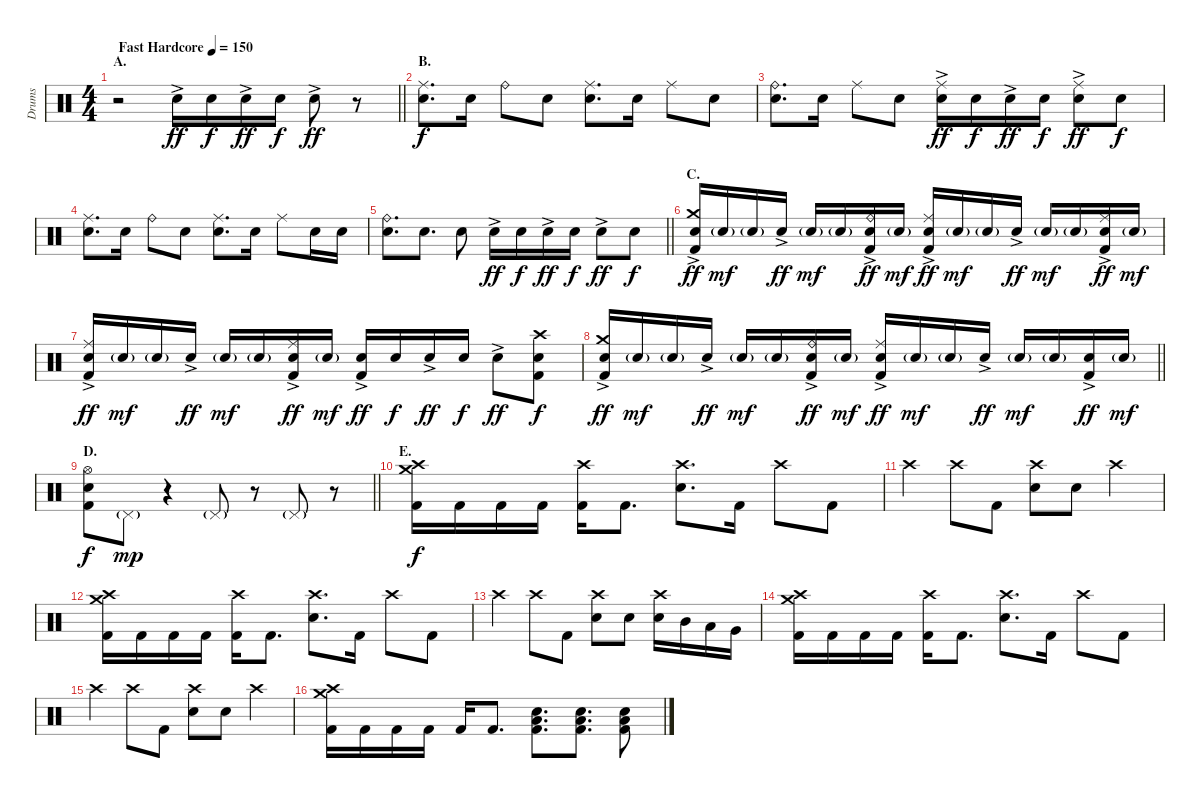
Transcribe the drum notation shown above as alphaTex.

\track ("Drums" "Drums") {instrument percussion}
\staff {score}
\articulation defaults
\ts (4 4)
\section ("" "A.")
\tempo (150 "Fast Hardcore")
\clef neutral
\barLineRight lightlight
\ks c
r.2{dy ff} "Electric Snare (hit)"{ac}.16 "Electric Snare (hit)".16{dy f} "Electric Snare (hit)"{ac}.16{dy ff} "Electric Snare (hit)".16{dy f} "Electric Snare (hit)"{ac}.8{dy ff} r.8 |
\section ("" "B.")
("Ride (middle)" "Electric Snare (hit)").8{d dy f} "Electric Snare (hit)".16 "Ride (bell)".8 "Electric Snare (hit)".8 ("Ride (middle)" "Electric Snare (hit)").8{d} "Electric Snare (hit)".16 "Ride (middle)".8 "Electric Snare (hit)".8 |
("Ride (bell)" "Electric Snare (hit)").8{d} "Electric Snare (hit)".16 "Ride (middle)".8 "Electric Snare (hit)".8 ("Ride (middle)" "Electric Snare (hit)"{ac}).16{dy ff} "Electric Snare (hit)".16{dy f} "Electric Snare (hit)"{ac}.16{dy ff} "Electric Snare (hit)".16{dy f} ("Ride (middle)" "Electric Snare (hit)"{ac}).8{dy ff} "Electric Snare (hit)".8{dy f} |
("Ride (middle)" "Electric Snare (hit)").8{d} "Electric Snare (hit)".16 "Ride (bell)".8 "Electric Snare (hit)".8 ("Ride (middle)" "Electric Snare (hit)").8{d} "Electric Snare (hit)".16 "Ride (middle)".8 "Electric Snare (hit)".16 "Electric Snare (hit)".16 |
\barLineRight lightlight
("Ride (bell)" "Electric Snare (hit)").8{d} "Electric Snare (hit)".8{d} "Electric Snare (hit)".8 "Electric Snare (hit)"{ac}.16{dy ff} "Electric Snare (hit)".16{dy f} "Electric Snare (hit)"{ac}.16{dy ff} "Electric Snare (hit)".16{dy f} "Electric Snare (hit)"{ac}.8{dy ff} "Electric Snare (hit)".8{dy f} |
\section ("" "C.")
("Crash medium (hit)" "Electric Snare (hit)"{ac} "Kick (hit) 2").16{dy ff} "Electric Snare (hit)"{g}.16{dy mf} "Electric Snare (hit)"{g}.16 "Electric Snare (hit)"{ac}.16{dy ff} "Electric Snare (hit)"{g}.16{dy mf} "Electric Snare (hit)"{g}.16 ("Ride (bell)" "Electric Snare (hit)"{ac} "Kick (hit) 2").16{dy ff} "Electric Snare (hit)"{g}.16{dy mf} ("Ride (middle)" "Electric Snare (hit)"{ac} "Kick (hit) 2").16{dy ff} "Electric Snare (hit)"{g}.16{dy mf} "Electric Snare (hit)"{g}.16 "Electric Snare (hit)"{ac}.16{dy ff} "Electric Snare (hit)"{g}.16{dy mf} "Electric Snare (hit)"{g}.16 ("Ride (middle)" "Electric Snare (hit)"{ac} "Kick (hit) 2").16{dy ff} "Electric Snare (hit)"{g}.16{dy mf} |
("Ride (middle)" "Electric Snare (hit)"{ac} "Kick (hit) 2").16{dy ff} "Electric Snare (hit)"{g}.16{dy mf} "Electric Snare (hit)"{g}.16 "Electric Snare (hit)"{ac}.16{dy ff} "Electric Snare (hit)"{g}.16{dy mf} "Electric Snare (hit)"{g}.16 ("Ride (middle)" "Electric Snare (hit)"{ac} "Kick (hit) 2").16{dy ff} "Electric Snare (hit)"{g}.16{dy mf} ("Electric Snare (hit)"{ac} "Kick (hit) 2").16{dy ff} "Electric Snare (hit)".16{dy f} "Electric Snare (hit)"{ac}.16{dy ff} "Electric Snare (hit)".16{dy f} "Electric Snare (hit)"{ac}.8{dy ff} ("Crash high (hit)" "Electric Snare (hit)" "Kick (hit) 2").8{dy f} |
\barLineRight lightlight
("Crash medium (hit)" "Electric Snare (hit)"{ac} "Kick (hit) 2").16{dy ff} "Electric Snare (hit)"{g}.16{dy mf} "Electric Snare (hit)"{g}.16 "Electric Snare (hit)"{ac}.16{dy ff} "Electric Snare (hit)"{g}.16{dy mf} "Electric Snare (hit)"{g}.16 ("Ride (bell)" "Electric Snare (hit)"{ac} "Kick (hit) 2").16{dy ff} "Electric Snare (hit)"{g}.16{dy mf} ("Ride (middle)" "Electric Snare (hit)"{ac} "Kick (hit) 2").16{dy ff} "Electric Snare (hit)"{g}.16{dy mf} "Electric Snare (hit)"{g}.16 "Electric Snare (hit)"{ac}.16{dy ff} "Electric Snare (hit)"{g}.16{dy mf} "Electric Snare (hit)"{g}.16 ("Electric Snare (hit)"{ac} "Kick (hit) 2").16{dy ff} "Electric Snare (hit)"{g}.16{dy mf} |
\section ("" "D.")
\barLineRight lightlight
("Hi-Hat (open)" "Electric Snare (hit)" "Kick (hit) 2").8{dy f} "Pedal Hi-Hat (hit)"{g}.8{dy mp} r.4 "Pedal Hi-Hat (hit)"{g}.8 r.8 "Pedal Hi-Hat (hit)"{g}.8 r.8 |
\section ("" "E.")
("Crash medium (hit)" "Crash high (hit)" "Kick (hit) 2").16{dy f} "Kick (hit) 2".16 "Kick (hit) 2".16 "Kick (hit) 2".16 ("Crash high (hit)" "Kick (hit) 2").16 "Kick (hit) 2".8{d} ("Crash high (hit)" "Electric Snare (hit)").8{d} "Kick (hit) 2".16 "Crash high (hit)".8 "Kick (hit) 2".8 |
"Crash high (hit)".4 "Crash high (hit)".8 "Kick (hit) 2".8 ("Crash high (hit)" "Electric Snare (hit)").8 "Electric Snare (hit)".8 "Crash high (hit)".4 |
("Crash medium (hit)" "Crash high (hit)" "Kick (hit) 2").16 "Kick (hit) 2".16 "Kick (hit) 2".16 "Kick (hit) 2".16 ("Crash high (hit)" "Kick (hit) 2").16 "Kick (hit) 2".8{d} ("Crash high (hit)" "Electric Snare (hit)").8{d} "Kick (hit) 2".16 "Crash high (hit)".8 "Kick (hit) 2".8 |
"Crash high (hit)".4 "Crash high (hit)".8 "Kick (hit) 2".8 ("Crash high (hit)" "Electric Snare (hit)").8 "Electric Snare (hit)".8 ("Crash high (hit)" "Electric Snare (hit)").16 "Mid Tom (hit)".16 "Low Tom (hit)".16 "Very Low Tom (hit)".16 |
("Crash medium (hit)" "Crash high (hit)" "Kick (hit) 2").16 "Kick (hit) 2".16 "Kick (hit) 2".16 "Kick (hit) 2".16 ("Crash high (hit)" "Kick (hit) 2").16 "Kick (hit) 2".8{d} ("Crash high (hit)" "Electric Snare (hit)").8{d} "Kick (hit) 2".16 "Crash high (hit)".8 "Kick (hit) 2".8 |
"Crash high (hit)".4 "Crash high (hit)".8 "Kick (hit) 2".8 ("Crash high (hit)" "Electric Snare (hit)").8 "Electric Snare (hit)".8 "Crash high (hit)".4 |
("Crash medium (hit)" "Crash high (hit)" "Kick (hit) 2").16 "Kick (hit) 2".16 "Kick (hit) 2".16 "Kick (hit) 2".16 "Kick (hit) 2".16 "Kick (hit) 2".8{d} ("Electric Snare (hit)" "Low Floor Tom (hit)" "Kick (hit) 2").8{d} ("Electric Snare (hit)" "Low Floor Tom (hit)" "Kick (hit) 2").8{d} ("Electric Snare (hit)" "Low Floor Tom (hit)" "Kick (hit) 2").8
